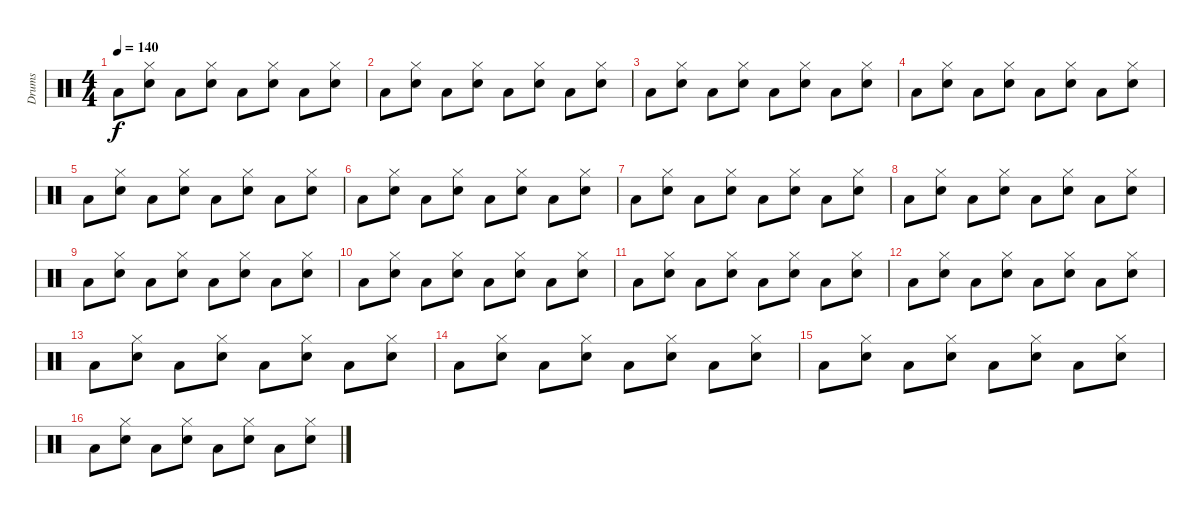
\track ("Drums" "Drums") {instrument percussion}
\staff {score}
\articulation defaults
\ts (4 4)
\tempo 140
\clef neutral
\ks c "Low Tom (hit)".8{dy f}
("Hi-Hat (closed)" "Electric Snare (hit)").8 "Low Tom (hit)".8 ("Hi-Hat (closed)" "Electric Snare (hit)").8 "Low Tom (hit)".8 ("Hi-Hat (closed)" "Electric Snare (hit)").8 "Low Tom (hit)".8 ("Hi-Hat (closed)" "Electric Snare (hit)").8 |
"Low Tom (hit)".8 ("Hi-Hat (closed)" "Electric Snare (hit)").8 "Low Tom (hit)".8 ("Hi-Hat (closed)" "Electric Snare (hit)").8 "Low Tom (hit)".8 ("Hi-Hat (closed)" "Electric Snare (hit)").8 "Low Tom (hit)".8 ("Hi-Hat (closed)" "Electric Snare (hit)").8 |
"Low Tom (hit)".8 ("Hi-Hat (closed)" "Electric Snare (hit)").8 "Low Tom (hit)".8 ("Hi-Hat (closed)" "Electric Snare (hit)").8 "Low Tom (hit)".8 ("Hi-Hat (closed)" "Electric Snare (hit)").8 "Low Tom (hit)".8 ("Hi-Hat (closed)" "Electric Snare (hit)").8 |
"Low Tom (hit)".8 ("Hi-Hat (closed)" "Electric Snare (hit)").8 "Low Tom (hit)".8 ("Hi-Hat (closed)" "Electric Snare (hit)").8 "Low Tom (hit)".8 ("Hi-Hat (closed)" "Electric Snare (hit)").8 "Low Tom (hit)".8 ("Hi-Hat (closed)" "Electric Snare (hit)").8 |
"Low Tom (hit)".8 ("Hi-Hat (closed)" "Electric Snare (hit)").8 "Low Tom (hit)".8 ("Hi-Hat (closed)" "Electric Snare (hit)").8 "Low Tom (hit)".8 ("Hi-Hat (closed)" "Electric Snare (hit)").8 "Low Tom (hit)".8 ("Hi-Hat (closed)" "Electric Snare (hit)").8 |
"Low Tom (hit)".8 ("Hi-Hat (closed)" "Electric Snare (hit)").8 "Low Tom (hit)".8 ("Hi-Hat (closed)" "Electric Snare (hit)").8 "Low Tom (hit)".8 ("Hi-Hat (closed)" "Electric Snare (hit)").8 "Low Tom (hit)".8 ("Hi-Hat (closed)" "Electric Snare (hit)").8 |
"Low Tom (hit)".8 ("Hi-Hat (closed)" "Electric Snare (hit)").8 "Low Tom (hit)".8 ("Hi-Hat (closed)" "Electric Snare (hit)").8 "Low Tom (hit)".8 ("Hi-Hat (closed)" "Electric Snare (hit)").8 "Low Tom (hit)".8 ("Hi-Hat (closed)" "Electric Snare (hit)").8 |
"Low Tom (hit)".8 ("Hi-Hat (closed)" "Electric Snare (hit)").8 "Low Tom (hit)".8 ("Hi-Hat (closed)" "Electric Snare (hit)").8 "Low Tom (hit)".8 ("Hi-Hat (closed)" "Electric Snare (hit)").8 "Low Tom (hit)".8 ("Hi-Hat (closed)" "Electric Snare (hit)").8 |
"Low Tom (hit)".8 ("Hi-Hat (closed)" "Electric Snare (hit)").8 "Low Tom (hit)".8 ("Hi-Hat (closed)" "Electric Snare (hit)").8 "Low Tom (hit)".8 ("Hi-Hat (closed)" "Electric Snare (hit)").8 "Low Tom (hit)".8 ("Hi-Hat (closed)" "Electric Snare (hit)").8 |
"Low Tom (hit)".8 ("Hi-Hat (closed)" "Electric Snare (hit)").8 "Low Tom (hit)".8 ("Hi-Hat (closed)" "Electric Snare (hit)").8 "Low Tom (hit)".8 ("Hi-Hat (closed)" "Electric Snare (hit)").8 "Low Tom (hit)".8 ("Hi-Hat (closed)" "Electric Snare (hit)").8 |
"Low Tom (hit)".8 ("Hi-Hat (closed)" "Electric Snare (hit)").8 "Low Tom (hit)".8 ("Hi-Hat (closed)" "Electric Snare (hit)").8 "Low Tom (hit)".8 ("Hi-Hat (closed)" "Electric Snare (hit)").8 "Low Tom (hit)".8 ("Hi-Hat (closed)" "Electric Snare (hit)").8 |
"Low Tom (hit)".8 ("Hi-Hat (closed)" "Electric Snare (hit)").8 "Low Tom (hit)".8 ("Hi-Hat (closed)" "Electric Snare (hit)").8 "Low Tom (hit)".8 ("Hi-Hat (closed)" "Electric Snare (hit)").8 "Low Tom (hit)".8 ("Hi-Hat (closed)" "Electric Snare (hit)").8 |
"Low Tom (hit)".8 ("Hi-Hat (closed)" "Electric Snare (hit)").8 "Low Tom (hit)".8 ("Hi-Hat (closed)" "Electric Snare (hit)").8 "Low Tom (hit)".8 ("Hi-Hat (closed)" "Electric Snare (hit)").8 "Low Tom (hit)".8 ("Hi-Hat (closed)" "Electric Snare (hit)").8 |
"Low Tom (hit)".8 ("Hi-Hat (closed)" "Electric Snare (hit)").8 "Low Tom (hit)".8 ("Hi-Hat (closed)" "Electric Snare (hit)").8 "Low Tom (hit)".8 ("Hi-Hat (closed)" "Electric Snare (hit)").8 "Low Tom (hit)".8 ("Hi-Hat (closed)" "Electric Snare (hit)").8 |
"Low Tom (hit)".8 ("Hi-Hat (closed)" "Electric Snare (hit)").8 "Low Tom (hit)".8 ("Hi-Hat (closed)" "Electric Snare (hit)").8 "Low Tom (hit)".8 ("Hi-Hat (closed)" "Electric Snare (hit)").8 "Low Tom (hit)".8 ("Hi-Hat (closed)" "Electric Snare (hit)").8 |
"Low Tom (hit)".8 ("Hi-Hat (closed)" "Electric Snare (hit)").8 "Low Tom (hit)".8 ("Hi-Hat (closed)" "Electric Snare (hit)").8 "Low Tom (hit)".8 ("Hi-Hat (closed)" "Electric Snare (hit)").8 "Low Tom (hit)".8 ("Hi-Hat (closed)" "Electric Snare (hit)").8
